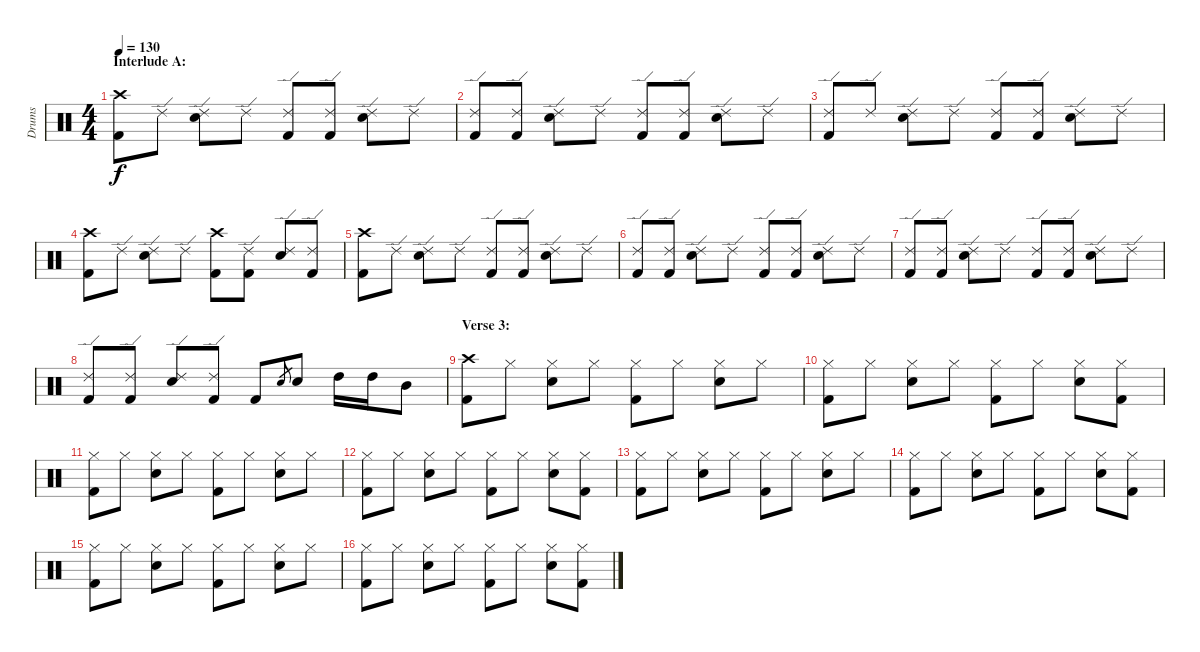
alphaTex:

\track ("Drums" "Drums") {instrument percussion}
\staff {score}
\articulation defaults
\ts (4 4)
\section ("" "Interlude A:")
\tempo 130
\clef neutral
\ks c
("Crash high (hit)" "Kick (hit) 2").8{dy f} "Ride (edge) 2".8 ("Ride (edge) 2" "Electric Snare (hit)").8 "Ride (edge) 2".8 ("Ride (edge) 2" "Kick (hit) 2").8 ("Ride (edge) 2" "Kick (hit) 2").8 ("Ride (edge) 2" "Electric Snare (hit)").8 "Ride (edge) 2".8 |
("Ride (edge) 2" "Kick (hit) 2").8 ("Ride (edge) 2" "Kick (hit) 2").8 ("Ride (edge) 2" "Electric Snare (hit)").8 "Ride (edge) 2".8 ("Ride (edge) 2" "Kick (hit) 2").8 ("Ride (edge) 2" "Kick (hit) 2").8 ("Ride (edge) 2" "Electric Snare (hit)").8 "Ride (edge) 2".8 |
("Ride (edge) 2" "Kick (hit) 2").8 "Ride (edge) 2".8 ("Ride (edge) 2" "Electric Snare (hit)").8 "Ride (edge) 2".8 ("Ride (edge) 2" "Kick (hit) 2").8 ("Ride (edge) 2" "Kick (hit) 2").8 ("Ride (edge) 2" "Electric Snare (hit)").8 "Ride (edge) 2".8 |
("Crash high (hit)" "Kick (hit) 2").8 "Ride (edge) 2".8 ("Ride (edge) 2" "Electric Snare (hit)").8 "Ride (edge) 2".8 ("Crash high (hit)" "Kick (hit) 2").8 ("Ride (edge) 2" "Kick (hit) 2").8 ("Ride (edge) 2" "Electric Snare (hit)").8 ("Ride (edge) 2" "Kick (hit) 2").8 |
("Crash high (hit)" "Kick (hit) 2").8 "Ride (edge) 2".8 ("Ride (edge) 2" "Electric Snare (hit)").8 "Ride (edge) 2".8 ("Ride (edge) 2" "Kick (hit) 2").8 ("Ride (edge) 2" "Kick (hit) 2").8 ("Ride (edge) 2" "Electric Snare (hit)").8 "Ride (edge) 2".8 |
("Ride (edge) 2" "Kick (hit) 2").8 ("Ride (edge) 2" "Kick (hit) 2").8 ("Ride (edge) 2" "Electric Snare (hit)").8 "Ride (edge) 2".8 ("Ride (edge) 2" "Kick (hit) 2").8 ("Ride (edge) 2" "Kick (hit) 2").8 ("Ride (edge) 2" "Electric Snare (hit)").8 "Ride (edge) 2".8 |
("Ride (edge) 2" "Kick (hit) 2").8 ("Ride (edge) 2" "Kick (hit) 2").8 ("Ride (edge) 2" "Electric Snare (hit)").8 "Ride (edge) 2".8 ("Ride (edge) 2" "Kick (hit) 2").8 ("Ride (edge) 2" "Kick (hit) 2").8 ("Ride (edge) 2" "Electric Snare (hit)").8 "Ride (edge) 2".8 |
("Ride (edge) 2" "Kick (hit) 2").8 ("Ride (edge) 2" "Kick (hit) 2").8 ("Ride (edge) 2" "Electric Snare (hit)").8 ("Ride (edge) 2" "Kick (hit) 2").8 "Kick (hit) 2".8 "Electric Snare (hit)".8{gr} "Electric Snare (hit)".8 "High Tom (hit)".16 "High Tom (hit)".16 "Mid Tom (hit)".8 |
\section ("" "Verse 3:")
("Crash high (hit)" "Kick (hit) 2").8 "Hi-Hat (closed)".8 ("Hi-Hat (closed)" "Electric Snare (hit)").8 "Hi-Hat (closed)".8 ("Hi-Hat (closed)" "Kick (hit) 2").8 "Hi-Hat (closed)".8 ("Hi-Hat (closed)" "Electric Snare (hit)").8 "Hi-Hat (closed)".8 |
("Hi-Hat (closed)" "Kick (hit) 2").8 "Hi-Hat (closed)".8 ("Hi-Hat (closed)" "Electric Snare (hit)").8 "Hi-Hat (closed)".8 ("Hi-Hat (closed)" "Kick (hit) 2").8 "Hi-Hat (closed)".8 ("Hi-Hat (closed)" "Electric Snare (hit)").8 ("Hi-Hat (closed)" "Kick (hit) 2").8 |
("Hi-Hat (closed)" "Kick (hit) 2").8 "Hi-Hat (closed)".8 ("Hi-Hat (closed)" "Electric Snare (hit)").8 "Hi-Hat (closed)".8 ("Hi-Hat (closed)" "Kick (hit) 2").8 "Hi-Hat (closed)".8 ("Hi-Hat (closed)" "Electric Snare (hit)").8 "Hi-Hat (closed)".8 |
("Hi-Hat (closed)" "Kick (hit) 2").8 "Hi-Hat (closed)".8 ("Hi-Hat (closed)" "Electric Snare (hit)").8 "Hi-Hat (closed)".8 ("Hi-Hat (closed)" "Kick (hit) 2").8 "Hi-Hat (closed)".8 ("Hi-Hat (closed)" "Electric Snare (hit)").8 ("Hi-Hat (closed)" "Kick (hit) 2").8 |
("Hi-Hat (closed)" "Kick (hit) 2").8 "Hi-Hat (closed)".8 ("Hi-Hat (closed)" "Electric Snare (hit)").8 "Hi-Hat (closed)".8 ("Hi-Hat (closed)" "Kick (hit) 2").8 "Hi-Hat (closed)".8 ("Hi-Hat (closed)" "Electric Snare (hit)").8 "Hi-Hat (closed)".8 |
("Hi-Hat (closed)" "Kick (hit) 2").8 "Hi-Hat (closed)".8 ("Hi-Hat (closed)" "Electric Snare (hit)").8 "Hi-Hat (closed)".8 ("Hi-Hat (closed)" "Kick (hit) 2").8 "Hi-Hat (closed)".8 ("Hi-Hat (closed)" "Electric Snare (hit)").8 ("Hi-Hat (closed)" "Kick (hit) 2").8 |
("Hi-Hat (closed)" "Kick (hit) 2").8 "Hi-Hat (closed)".8 ("Hi-Hat (closed)" "Electric Snare (hit)").8 "Hi-Hat (closed)".8 ("Hi-Hat (closed)" "Kick (hit) 2").8 "Hi-Hat (closed)".8 ("Hi-Hat (closed)" "Electric Snare (hit)").8 "Hi-Hat (closed)".8 |
("Hi-Hat (closed)" "Kick (hit) 2").8 "Hi-Hat (closed)".8 ("Hi-Hat (closed)" "Electric Snare (hit)").8 "Hi-Hat (closed)".8 ("Hi-Hat (closed)" "Kick (hit) 2").8 "Hi-Hat (closed)".8 ("Hi-Hat (closed)" "Electric Snare (hit)").8 ("Hi-Hat (closed)" "Kick (hit) 2").8
